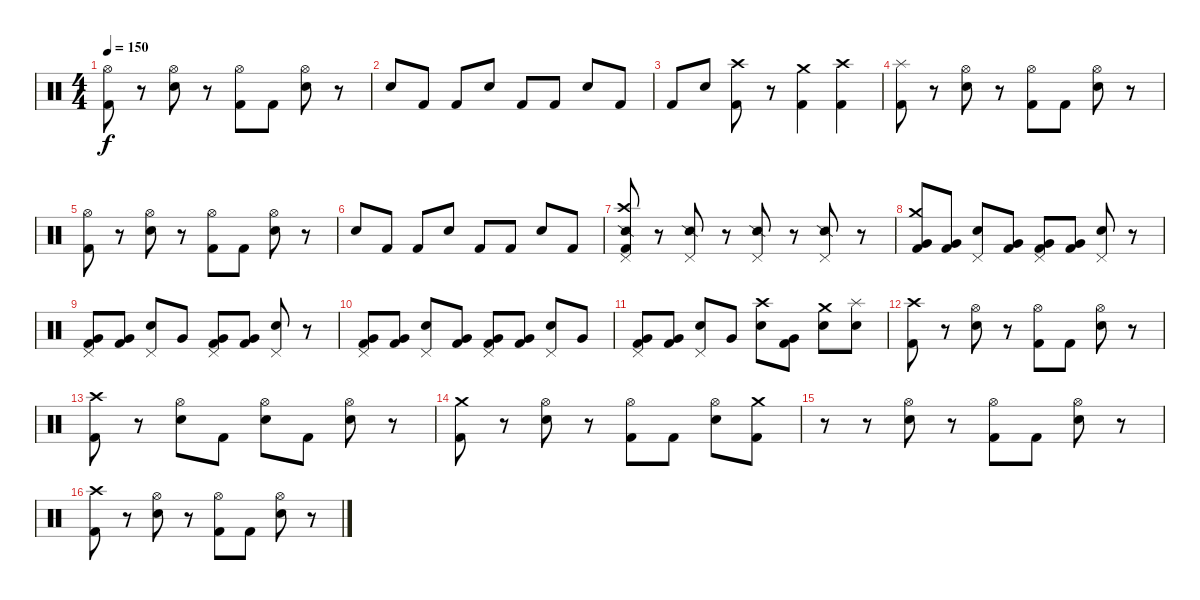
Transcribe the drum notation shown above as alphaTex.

\track "" {instrument percussion}
\staff {score}
\articulation defaults
\ts (4 4)
\tempo 150
\clef neutral
\ks c
("Hi-Hat (open)" "Kick (hit) 2").8{dy f} r.8 ("Hi-Hat (open)" "Electric Snare (hit)").8 r.8 ("Hi-Hat (open)" "Kick (hit) 2").8 "Kick (hit) 2".8 ("Hi-Hat (open)" "Electric Snare (hit)").8 r.8 |
"Electric Snare (hit)".8 "Kick (hit) 2".8 "Kick (hit) 2".8 "Electric Snare (hit)".8 "Kick (hit) 2".8 "Kick (hit) 2".8 "Electric Snare (hit)".8 "Kick (hit) 2".8 |
"Kick (hit) 2".8 "Electric Snare (hit)".8 ("Crash high (hit)" "Kick (hit) 2").8 r.8 ("Crash medium (hit)" "Kick (hit) 2").4 ("Crash high (hit)" "Kick (hit) 2").4 |
("Splash (hit)" "Kick (hit) 2").8 r.8 ("Hi-Hat (open)" "Electric Snare (hit)").8 r.8 ("Hi-Hat (open)" "Kick (hit) 2").8 "Kick (hit) 2".8 ("Hi-Hat (open)" "Electric Snare (hit)").8 r.8 |
("Hi-Hat (open)" "Kick (hit) 2").8 r.8 ("Hi-Hat (open)" "Electric Snare (hit)").8 r.8 ("Hi-Hat (open)" "Kick (hit) 2").8 "Kick (hit) 2".8 ("Hi-Hat (open)" "Electric Snare (hit)").8 r.8 |
"Electric Snare (hit)".8 "Kick (hit) 2".8 "Kick (hit) 2".8 "Electric Snare (hit)".8 "Kick (hit) 2".8 "Kick (hit) 2".8 "Electric Snare (hit)".8 "Kick (hit) 2".8 |
("Crash high (hit)" "Snare (side stick) 2" "Kick (hit) 2" "Pedal Hi-Hat (hit)").8 r.8 ("Snare (side stick) 2" "Pedal Hi-Hat (hit)").8 r.8 ("Snare (side stick) 2" "Pedal Hi-Hat (hit)").8 r.8 ("Snare (side stick) 2" "Pedal Hi-Hat (hit)").8 r.8 |
("Crash medium (hit)" "Very Low Tom (hit)" "Kick (hit) 2").8 ("Very Low Tom (hit)" "Kick (hit) 2").8 ("Pedal Hi-Hat (hit)" "Electric Snare (hit)").8 ("Very Low Tom (hit)" "Kick (hit) 2").8 ("Pedal Hi-Hat (hit)" "Very Low Tom (hit)" "Kick (hit) 2").8 ("Very Low Tom (hit)" "Kick (hit) 2").8 ("Pedal Hi-Hat (hit)" "Electric Snare (hit)").8 r.8 |
("Pedal Hi-Hat (hit)" "Very Low Tom (hit)" "Kick (hit) 2").8 ("Very Low Tom (hit)" "Kick (hit) 2").8 ("Pedal Hi-Hat (hit)" "Electric Snare (hit)").8 "Very Low Tom (hit)".8 ("Pedal Hi-Hat (hit)" "Very Low Tom (hit)" "Kick (hit) 2").8 ("Very Low Tom (hit)" "Kick (hit) 2").8 ("Pedal Hi-Hat (hit)" "Electric Snare (hit)").8 r.8 |
("Pedal Hi-Hat (hit)" "Very Low Tom (hit)" "Kick (hit) 2").8 ("Very Low Tom (hit)" "Kick (hit) 2").8 ("Pedal Hi-Hat (hit)" "Electric Snare (hit)").8 ("Very Low Tom (hit)" "Kick (hit) 2").8 ("Pedal Hi-Hat (hit)" "Very Low Tom (hit)" "Kick (hit) 2").8 ("Very Low Tom (hit)" "Kick (hit) 2").8 ("Pedal Hi-Hat (hit)" "Electric Snare (hit)").8 "Very Low Tom (hit)".8 |
("Pedal Hi-Hat (hit)" "Very Low Tom (hit)" "Kick (hit) 2").8 ("Very Low Tom (hit)" "Kick (hit) 2").8 ("Pedal Hi-Hat (hit)" "Electric Snare (hit)").8 "Very Low Tom (hit)".8 ("Crash high (hit)" "Electric Snare (hit)").8 ("Very Low Tom (hit)" "Kick (hit) 2").8 ("Crash medium (hit)" "Electric Snare (hit)").8 ("Splash (hit)" "Electric Snare (hit)").8 |
("Crash high (hit)" "Kick (hit) 2").8 r.8 ("Hi-Hat (open)" "Electric Snare (hit)").8 r.8 ("Hi-Hat (open)" "Kick (hit) 2").8 "Kick (hit) 2".8 ("Hi-Hat (open)" "Electric Snare (hit)").8 r.8 |
("Crash high (hit)" "Kick (hit) 2").8 r.8 ("Hi-Hat (open)" "Electric Snare (hit)").8 "Kick (hit) 2".8 ("Hi-Hat (open)" "Electric Snare (hit)").8 "Kick (hit) 2".8 ("Hi-Hat (open)" "Electric Snare (hit)").8 r.8 |
("Crash medium (hit)" "Kick (hit) 2").8 r.8 ("Hi-Hat (open)" "Electric Snare (hit)").8 r.8 ("Hi-Hat (open)" "Kick (hit) 2").8 "Kick (hit) 2".8 ("Hi-Hat (open)" "Electric Snare (hit)").8 ("Crash medium (hit)" "Kick (hit) 2").8 |
r.8 r.8 ("Hi-Hat (open)" "Electric Snare (hit)").8 r.8 ("Hi-Hat (open)" "Kick (hit) 2").8 "Kick (hit) 2".8 ("Hi-Hat (open)" "Electric Snare (hit)").8 r.8 |
("Crash high (hit)" "Kick (hit) 2").8 r.8 ("Hi-Hat (open)" "Electric Snare (hit)").8 r.8 ("Hi-Hat (open)" "Kick (hit) 2").8 "Kick (hit) 2".8 ("Hi-Hat (open)" "Electric Snare (hit)").8 r.8
